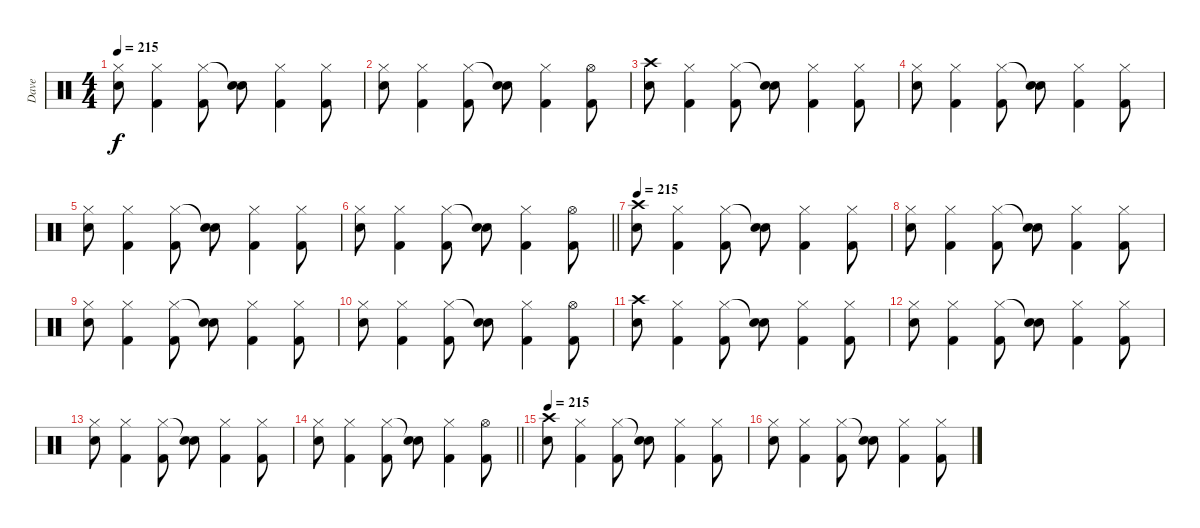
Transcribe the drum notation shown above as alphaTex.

\track ("Dave" "Dave") {instrument percussion}
\staff {score}
\articulation defaults
\ts (4 4)
\tempo 215
\clef neutral
\ks c
("Hi-Hat (closed)" "Electric Snare (hit)").8{dy f} ("Hi-Hat (closed)" "Kick (hit) 2").4 ("Hi-Hat (closed)" "Kick (hit) 2").8 ("Snare (hit)"{t} "Electric Snare (hit)").8 ("Hi-Hat (closed)" "Kick (hit) 2").4 ("Hi-Hat (closed)" "Kick (hit) 2").8 |
("Hi-Hat (closed)" "Electric Snare (hit)").8 ("Hi-Hat (closed)" "Kick (hit) 2").4 ("Hi-Hat (closed)" "Kick (hit) 2").8 ("Snare (hit)"{t} "Electric Snare (hit)").8 ("Hi-Hat (closed)" "Kick (hit) 2").4 ("Hi-Hat (open)" "Kick (hit) 2").8 |
("Crash high (hit)" "Electric Snare (hit)").8 ("Hi-Hat (closed)" "Kick (hit) 2").4 ("Hi-Hat (closed)" "Kick (hit) 2").8 ("Snare (hit)"{t} "Electric Snare (hit)").8 ("Hi-Hat (closed)" "Kick (hit) 2").4 ("Hi-Hat (closed)" "Kick (hit) 2").8 |
("Hi-Hat (closed)" "Electric Snare (hit)").8 ("Hi-Hat (closed)" "Kick (hit) 2").4 ("Hi-Hat (closed)" "Kick (hit) 2").8 ("Snare (hit)"{t} "Electric Snare (hit)").8 ("Hi-Hat (closed)" "Kick (hit) 2").4 ("Hi-Hat (closed)" "Kick (hit) 2").8 |
("Hi-Hat (closed)" "Electric Snare (hit)").8 ("Hi-Hat (closed)" "Kick (hit) 2").4 ("Hi-Hat (closed)" "Kick (hit) 2").8 ("Snare (hit)"{t} "Electric Snare (hit)").8 ("Hi-Hat (closed)" "Kick (hit) 2").4 ("Hi-Hat (closed)" "Kick (hit) 2").8 |
\barLineRight lightlight
("Hi-Hat (closed)" "Electric Snare (hit)").8 ("Hi-Hat (closed)" "Kick (hit) 2").4 ("Hi-Hat (closed)" "Kick (hit) 2").8 ("Snare (hit)"{t} "Electric Snare (hit)").8 ("Hi-Hat (closed)" "Kick (hit) 2").4 ("Hi-Hat (open)" "Kick (hit) 2").8 |
\tempo 215
("Crash high (hit)" "Electric Snare (hit)").8 ("Hi-Hat (closed)" "Kick (hit) 2").4 ("Hi-Hat (closed)" "Kick (hit) 2").8 ("Snare (hit)"{t} "Electric Snare (hit)").8 ("Hi-Hat (closed)" "Kick (hit) 2").4 ("Hi-Hat (closed)" "Kick (hit) 2").8 |
("Hi-Hat (closed)" "Electric Snare (hit)").8 ("Hi-Hat (closed)" "Kick (hit) 2").4 ("Hi-Hat (closed)" "Kick (hit) 2").8 ("Snare (hit)"{t} "Electric Snare (hit)").8 ("Hi-Hat (closed)" "Kick (hit) 2").4 ("Hi-Hat (closed)" "Kick (hit) 2").8 |
("Hi-Hat (closed)" "Electric Snare (hit)").8 ("Hi-Hat (closed)" "Kick (hit) 2").4 ("Hi-Hat (closed)" "Kick (hit) 2").8 ("Snare (hit)"{t} "Electric Snare (hit)").8 ("Hi-Hat (closed)" "Kick (hit) 2").4 ("Hi-Hat (closed)" "Kick (hit) 2").8 |
("Hi-Hat (closed)" "Electric Snare (hit)").8 ("Hi-Hat (closed)" "Kick (hit) 2").4 ("Hi-Hat (closed)" "Kick (hit) 2").8 ("Snare (hit)"{t} "Electric Snare (hit)").8 ("Hi-Hat (closed)" "Kick (hit) 2").4 ("Hi-Hat (open)" "Kick (hit) 2").8 |
("Crash high (hit)" "Electric Snare (hit)").8 ("Hi-Hat (closed)" "Kick (hit) 2").4 ("Hi-Hat (closed)" "Kick (hit) 2").8 ("Snare (hit)"{t} "Electric Snare (hit)").8 ("Hi-Hat (closed)" "Kick (hit) 2").4 ("Hi-Hat (closed)" "Kick (hit) 2").8 |
("Hi-Hat (closed)" "Electric Snare (hit)").8 ("Hi-Hat (closed)" "Kick (hit) 2").4 ("Hi-Hat (closed)" "Kick (hit) 2").8 ("Snare (hit)"{t} "Electric Snare (hit)").8 ("Hi-Hat (closed)" "Kick (hit) 2").4 ("Hi-Hat (closed)" "Kick (hit) 2").8 |
("Hi-Hat (closed)" "Electric Snare (hit)").8 ("Hi-Hat (closed)" "Kick (hit) 2").4 ("Hi-Hat (closed)" "Kick (hit) 2").8 ("Snare (hit)"{t} "Electric Snare (hit)").8 ("Hi-Hat (closed)" "Kick (hit) 2").4 ("Hi-Hat (closed)" "Kick (hit) 2").8 |
\barLineRight lightlight
("Hi-Hat (closed)" "Electric Snare (hit)").8 ("Hi-Hat (closed)" "Kick (hit) 2").4 ("Hi-Hat (closed)" "Kick (hit) 2").8 ("Snare (hit)"{t} "Electric Snare (hit)").8 ("Hi-Hat (closed)" "Kick (hit) 2").4 ("Hi-Hat (open)" "Kick (hit) 2").8 |
\tempo 215
("Crash high (hit)" "Electric Snare (hit)").8 ("Hi-Hat (closed)" "Kick (hit) 2").4 ("Hi-Hat (closed)" "Kick (hit) 2").8 ("Snare (hit)"{t} "Electric Snare (hit)").8 ("Hi-Hat (closed)" "Kick (hit) 2").4 ("Hi-Hat (closed)" "Kick (hit) 2").8 |
("Hi-Hat (closed)" "Electric Snare (hit)").8 ("Hi-Hat (closed)" "Kick (hit) 2").4 ("Hi-Hat (closed)" "Kick (hit) 2").8 ("Snare (hit)"{t} "Electric Snare (hit)").8 ("Hi-Hat (closed)" "Kick (hit) 2").4 ("Hi-Hat (closed)" "Kick (hit) 2").8
